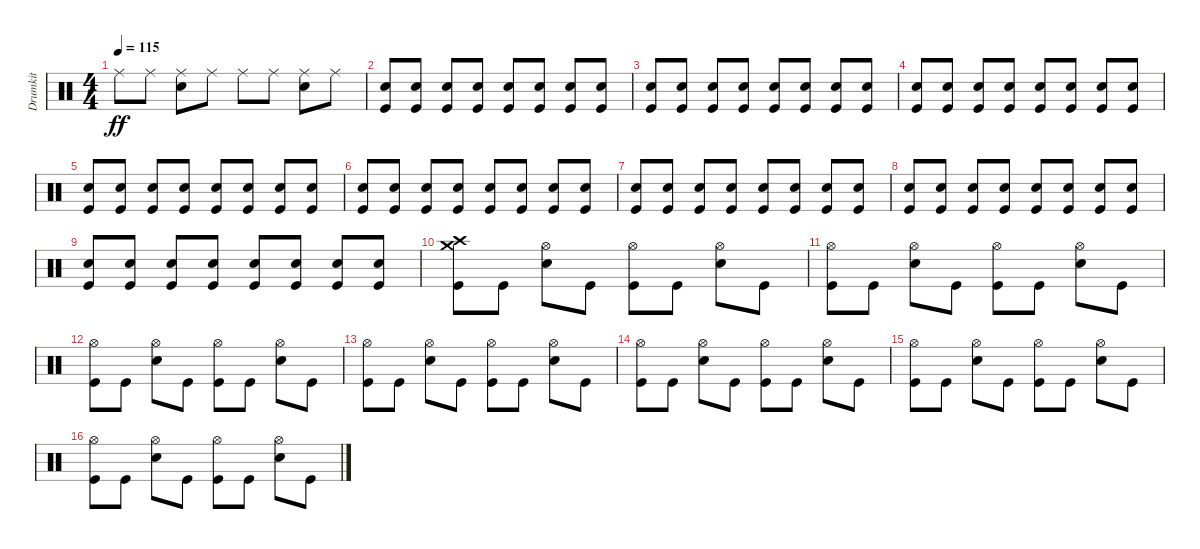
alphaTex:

\track ("Drumkit" "Drumkit") {instrument percussion}
\staff {score}
\articulation defaults
\ts (4 4)
\tempo 115
\clef neutral
\ks c "Ride (middle)".8{dy ff} "Ride (middle)".8
("Snare (hit) 2" "Ride (middle)").8 "Ride (middle)".8 "Ride (middle)".8 "Ride (middle)".8 ("Snare (hit) 2" "Ride (middle)").8 "Ride (middle)".8 |
("Kick (hit)" "Snare (hit) 2").8 ("Kick (hit)" "Snare (hit) 2").8 ("Kick (hit)" "Snare (hit) 2").8 ("Kick (hit)" "Snare (hit) 2").8 ("Kick (hit)" "Snare (hit) 2").8 ("Kick (hit)" "Snare (hit) 2").8 ("Kick (hit)" "Snare (hit) 2").8 ("Kick (hit)" "Snare (hit) 2").8 |
("Kick (hit)" "Snare (hit) 2").8 ("Kick (hit)" "Snare (hit) 2").8 ("Kick (hit)" "Snare (hit) 2").8 ("Kick (hit)" "Snare (hit) 2").8 ("Kick (hit)" "Snare (hit) 2").8 ("Kick (hit)" "Snare (hit) 2").8 ("Kick (hit)" "Snare (hit) 2").8 ("Kick (hit)" "Snare (hit) 2").8 |
("Kick (hit)" "Snare (hit) 2").8 ("Kick (hit)" "Snare (hit) 2").8 ("Kick (hit)" "Snare (hit) 2").8 ("Kick (hit)" "Snare (hit) 2").8 ("Kick (hit)" "Snare (hit) 2").8 ("Kick (hit)" "Snare (hit) 2").8 ("Kick (hit)" "Snare (hit) 2").8 ("Kick (hit)" "Snare (hit) 2").8 |
("Kick (hit)" "Snare (hit) 2").8 ("Kick (hit)" "Snare (hit) 2").8 ("Kick (hit)" "Snare (hit) 2").8 ("Kick (hit)" "Snare (hit) 2").8 ("Kick (hit)" "Snare (hit) 2").8 ("Kick (hit)" "Snare (hit) 2").8 ("Kick (hit)" "Snare (hit) 2").8 ("Kick (hit)" "Snare (hit) 2").8 |
("Kick (hit)" "Snare (hit) 2").8 ("Kick (hit)" "Snare (hit) 2").8 ("Kick (hit)" "Snare (hit) 2").8 ("Kick (hit)" "Snare (hit) 2").8 ("Kick (hit)" "Snare (hit) 2").8 ("Kick (hit)" "Snare (hit) 2").8 ("Kick (hit)" "Snare (hit) 2").8 ("Kick (hit)" "Snare (hit) 2").8 |
("Kick (hit)" "Snare (hit) 2").8 ("Kick (hit)" "Snare (hit) 2").8 ("Kick (hit)" "Snare (hit) 2").8 ("Kick (hit)" "Snare (hit) 2").8 ("Kick (hit)" "Snare (hit) 2").8 ("Kick (hit)" "Snare (hit) 2").8 ("Kick (hit)" "Snare (hit) 2").8 ("Kick (hit)" "Snare (hit) 2").8 |
("Kick (hit)" "Snare (hit) 2").8 ("Kick (hit)" "Snare (hit) 2").8 ("Kick (hit)" "Snare (hit) 2").8 ("Kick (hit)" "Snare (hit) 2").8 ("Kick (hit)" "Snare (hit) 2").8 ("Kick (hit)" "Snare (hit) 2").8 ("Kick (hit)" "Snare (hit) 2").8 ("Kick (hit)" "Snare (hit) 2").8 |
("Kick (hit)" "Snare (hit) 2").8 ("Kick (hit)" "Snare (hit) 2").8 ("Kick (hit)" "Snare (hit) 2").8 ("Kick (hit)" "Snare (hit) 2").8 ("Kick (hit)" "Snare (hit) 2").8 ("Kick (hit)" "Snare (hit) 2").8 ("Kick (hit)" "Snare (hit) 2").8 ("Kick (hit)" "Snare (hit) 2").8 |
("Kick (hit)" "Crash medium (hit)" "Crash high (hit)").8 "Kick (hit)".8 ("Snare (hit) 2" "Hi-Hat (open)").8 "Kick (hit)".8 ("Kick (hit)" "Hi-Hat (open)").8 "Kick (hit)".8 ("Snare (hit) 2" "Hi-Hat (open)").8 "Kick (hit)".8 |
("Kick (hit)" "Hi-Hat (open)").8 "Kick (hit)".8 ("Snare (hit) 2" "Hi-Hat (open)").8 "Kick (hit)".8 ("Kick (hit)" "Hi-Hat (open)").8 "Kick (hit)".8 ("Snare (hit) 2" "Hi-Hat (open)").8 "Kick (hit)".8 |
("Kick (hit)" "Hi-Hat (open)").8 "Kick (hit)".8 ("Snare (hit) 2" "Hi-Hat (open)").8 "Kick (hit)".8 ("Kick (hit)" "Hi-Hat (open)").8 "Kick (hit)".8 ("Snare (hit) 2" "Hi-Hat (open)").8 "Kick (hit)".8 |
("Kick (hit)" "Hi-Hat (open)").8 "Kick (hit)".8 ("Snare (hit) 2" "Hi-Hat (open)").8 "Kick (hit)".8 ("Kick (hit)" "Hi-Hat (open)").8 "Kick (hit)".8 ("Snare (hit) 2" "Hi-Hat (open)").8 "Kick (hit)".8 |
("Kick (hit)" "Hi-Hat (open)").8 "Kick (hit)".8 ("Snare (hit) 2" "Hi-Hat (open)").8 "Kick (hit)".8 ("Kick (hit)" "Hi-Hat (open)").8 "Kick (hit)".8 ("Snare (hit) 2" "Hi-Hat (open)").8 "Kick (hit)".8 |
("Kick (hit)" "Hi-Hat (open)").8 "Kick (hit)".8 ("Snare (hit) 2" "Hi-Hat (open)").8 "Kick (hit)".8 ("Kick (hit)" "Hi-Hat (open)").8 "Kick (hit)".8 ("Snare (hit) 2" "Hi-Hat (open)").8 "Kick (hit)".8 |
("Kick (hit)" "Hi-Hat (open)").8 "Kick (hit)".8 ("Snare (hit) 2" "Hi-Hat (open)").8 "Kick (hit)".8 ("Kick (hit)" "Hi-Hat (open)").8 "Kick (hit)".8 ("Snare (hit) 2" "Hi-Hat (open)").8 "Kick (hit)".8
